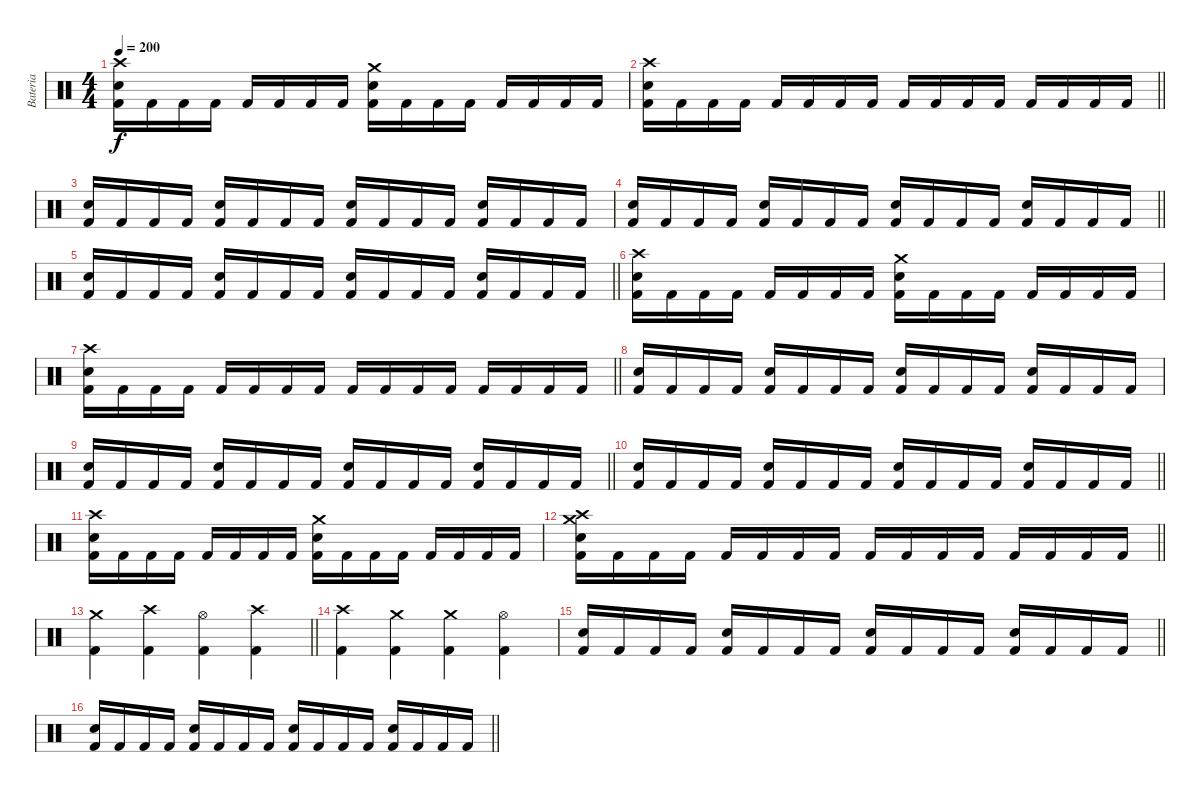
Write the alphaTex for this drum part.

\track ("Bateria" "Bateria") {instrument percussion}
\staff {score}
\articulation defaults
\ts (4 4)
\tempo 200
\clef neutral
\ks c
("Crash high (hit)" "Electric Snare (hit)" "Kick (hit) 2").16{dy f} "Kick (hit) 2".16 "Kick (hit) 2".16 "Kick (hit) 2".16 "Kick (hit) 2".16 "Kick (hit) 2".16 "Kick (hit) 2".16 "Kick (hit) 2".16 ("Crash medium (hit)" "Electric Snare (hit)" "Kick (hit) 2").16 "Kick (hit) 2".16 "Kick (hit) 2".16 "Kick (hit) 2".16 "Kick (hit) 2".16 "Kick (hit) 2".16 "Kick (hit) 2".16 "Kick (hit) 2".16 |
\barLineRight lightlight
("Crash high (hit)" "Electric Snare (hit)" "Kick (hit) 2").16 "Kick (hit) 2".16 "Kick (hit) 2".16 "Kick (hit) 2".16 "Kick (hit) 2".16 "Kick (hit) 2".16 "Kick (hit) 2".16 "Kick (hit) 2".16 "Kick (hit) 2".16 "Kick (hit) 2".16 "Kick (hit) 2".16 "Kick (hit) 2".16 "Kick (hit) 2".16 "Kick (hit) 2".16 "Kick (hit) 2".16 "Kick (hit) 2".16 |
("Electric Snare (hit)" "Kick (hit) 2").16 "Kick (hit) 2".16 "Kick (hit) 2".16 "Kick (hit) 2".16 ("Electric Snare (hit)" "Kick (hit) 2").16 "Kick (hit) 2".16 "Kick (hit) 2".16 "Kick (hit) 2".16 ("Electric Snare (hit)" "Kick (hit) 2").16 "Kick (hit) 2".16 "Kick (hit) 2".16 "Kick (hit) 2".16 ("Electric Snare (hit)" "Kick (hit) 2").16 "Kick (hit) 2".16 "Kick (hit) 2".16 "Kick (hit) 2".16 |
\barLineRight lightlight
("Electric Snare (hit)" "Kick (hit) 2").16 "Kick (hit) 2".16 "Kick (hit) 2".16 "Kick (hit) 2".16 ("Electric Snare (hit)" "Kick (hit) 2").16 "Kick (hit) 2".16 "Kick (hit) 2".16 "Kick (hit) 2".16 ("Electric Snare (hit)" "Kick (hit) 2").16 "Kick (hit) 2".16 "Kick (hit) 2".16 "Kick (hit) 2".16 ("Electric Snare (hit)" "Kick (hit) 2").16 "Kick (hit) 2".16 "Kick (hit) 2".16 "Kick (hit) 2".16 |
\barLineRight lightlight
("Electric Snare (hit)" "Kick (hit) 2").16 "Kick (hit) 2".16 "Kick (hit) 2".16 "Kick (hit) 2".16 ("Electric Snare (hit)" "Kick (hit) 2").16 "Kick (hit) 2".16 "Kick (hit) 2".16 "Kick (hit) 2".16 ("Electric Snare (hit)" "Kick (hit) 2").16 "Kick (hit) 2".16 "Kick (hit) 2".16 "Kick (hit) 2".16 ("Electric Snare (hit)" "Kick (hit) 2").16 "Kick (hit) 2".16 "Kick (hit) 2".16 "Kick (hit) 2".16 |
("Crash high (hit)" "Electric Snare (hit)" "Kick (hit) 2").16 "Kick (hit) 2".16 "Kick (hit) 2".16 "Kick (hit) 2".16 "Kick (hit) 2".16 "Kick (hit) 2".16 "Kick (hit) 2".16 "Kick (hit) 2".16 ("Crash medium (hit)" "Electric Snare (hit)" "Kick (hit) 2").16 "Kick (hit) 2".16 "Kick (hit) 2".16 "Kick (hit) 2".16 "Kick (hit) 2".16 "Kick (hit) 2".16 "Kick (hit) 2".16 "Kick (hit) 2".16 |
\barLineRight lightlight
("Crash high (hit)" "Electric Snare (hit)" "Kick (hit) 2").16 "Kick (hit) 2".16 "Kick (hit) 2".16 "Kick (hit) 2".16 "Kick (hit) 2".16 "Kick (hit) 2".16 "Kick (hit) 2".16 "Kick (hit) 2".16 "Kick (hit) 2".16 "Kick (hit) 2".16 "Kick (hit) 2".16 "Kick (hit) 2".16 "Kick (hit) 2".16 "Kick (hit) 2".16 "Kick (hit) 2".16 "Kick (hit) 2".16 |
("Electric Snare (hit)" "Kick (hit) 2").16 "Kick (hit) 2".16 "Kick (hit) 2".16 "Kick (hit) 2".16 ("Electric Snare (hit)" "Kick (hit) 2").16 "Kick (hit) 2".16 "Kick (hit) 2".16 "Kick (hit) 2".16 ("Electric Snare (hit)" "Kick (hit) 2").16 "Kick (hit) 2".16 "Kick (hit) 2".16 "Kick (hit) 2".16 ("Electric Snare (hit)" "Kick (hit) 2").16 "Kick (hit) 2".16 "Kick (hit) 2".16 "Kick (hit) 2".16 |
\barLineRight lightlight
("Electric Snare (hit)" "Kick (hit) 2").16 "Kick (hit) 2".16 "Kick (hit) 2".16 "Kick (hit) 2".16 ("Electric Snare (hit)" "Kick (hit) 2").16 "Kick (hit) 2".16 "Kick (hit) 2".16 "Kick (hit) 2".16 ("Electric Snare (hit)" "Kick (hit) 2").16 "Kick (hit) 2".16 "Kick (hit) 2".16 "Kick (hit) 2".16 ("Electric Snare (hit)" "Kick (hit) 2").16 "Kick (hit) 2".16 "Kick (hit) 2".16 "Kick (hit) 2".16 |
\barLineRight lightlight
("Electric Snare (hit)" "Kick (hit) 2").16 "Kick (hit) 2".16 "Kick (hit) 2".16 "Kick (hit) 2".16 ("Electric Snare (hit)" "Kick (hit) 2").16 "Kick (hit) 2".16 "Kick (hit) 2".16 "Kick (hit) 2".16 ("Electric Snare (hit)" "Kick (hit) 2").16 "Kick (hit) 2".16 "Kick (hit) 2".16 "Kick (hit) 2".16 ("Electric Snare (hit)" "Kick (hit) 2").16 "Kick (hit) 2".16 "Kick (hit) 2".16 "Kick (hit) 2".16 |
("Crash high (hit)" "Electric Snare (hit)" "Kick (hit) 2").16 "Kick (hit) 2".16 "Kick (hit) 2".16 "Kick (hit) 2".16 "Kick (hit) 2".16 "Kick (hit) 2".16 "Kick (hit) 2".16 "Kick (hit) 2".16 ("Crash medium (hit)" "Electric Snare (hit)" "Kick (hit) 2").16 "Kick (hit) 2".16 "Kick (hit) 2".16 "Kick (hit) 2".16 "Kick (hit) 2".16 "Kick (hit) 2".16 "Kick (hit) 2".16 "Kick (hit) 2".16 |
\barLineRight lightlight
("Crash high (hit)" "Crash medium (hit)" "Snare (hit) 2" "Kick (hit) 2").16 "Kick (hit) 2".16 "Kick (hit) 2".16 "Kick (hit) 2".16 "Kick (hit) 2".16 "Kick (hit) 2".16 "Kick (hit) 2".16 "Kick (hit) 2".16 "Kick (hit) 2".16 "Kick (hit) 2".16 "Kick (hit) 2".16 "Kick (hit) 2".16 "Kick (hit) 2".16 "Kick (hit) 2".16 "Kick (hit) 2".16 "Kick (hit) 2".16 |
\barLineRight lightlight
("Crash medium (hit)" "Kick (hit) 2").4 ("Crash high (hit)" "Kick (hit) 2").4 ("Hi-Hat (open)" "Kick (hit) 2").4 ("Crash high (hit)" "Kick (hit) 2").4 |
("Crash high (hit)" "Kick (hit) 2").4 ("Crash medium (hit)" "Kick (hit) 2").4 ("Crash medium (hit)" "Kick (hit) 2").4 ("Hi-Hat (open)" "Kick (hit) 2").4 |
\barLineRight lightlight
("Electric Snare (hit)" "Kick (hit) 2").16 "Kick (hit) 2".16 "Kick (hit) 2".16 "Kick (hit) 2".16 ("Electric Snare (hit)" "Kick (hit) 2").16 "Kick (hit) 2".16 "Kick (hit) 2".16 "Kick (hit) 2".16 ("Electric Snare (hit)" "Kick (hit) 2").16 "Kick (hit) 2".16 "Kick (hit) 2".16 "Kick (hit) 2".16 ("Electric Snare (hit)" "Kick (hit) 2").16 "Kick (hit) 2".16 "Kick (hit) 2".16 "Kick (hit) 2".16 |
\barLineRight lightlight
("Electric Snare (hit)" "Kick (hit) 2").16 "Kick (hit) 2".16 "Kick (hit) 2".16 "Kick (hit) 2".16 ("Electric Snare (hit)" "Kick (hit) 2").16 "Kick (hit) 2".16 "Kick (hit) 2".16 "Kick (hit) 2".16 ("Electric Snare (hit)" "Kick (hit) 2").16 "Kick (hit) 2".16 "Kick (hit) 2".16 "Kick (hit) 2".16 ("Electric Snare (hit)" "Kick (hit) 2").16 "Kick (hit) 2".16 "Kick (hit) 2".16 "Kick (hit) 2".16
